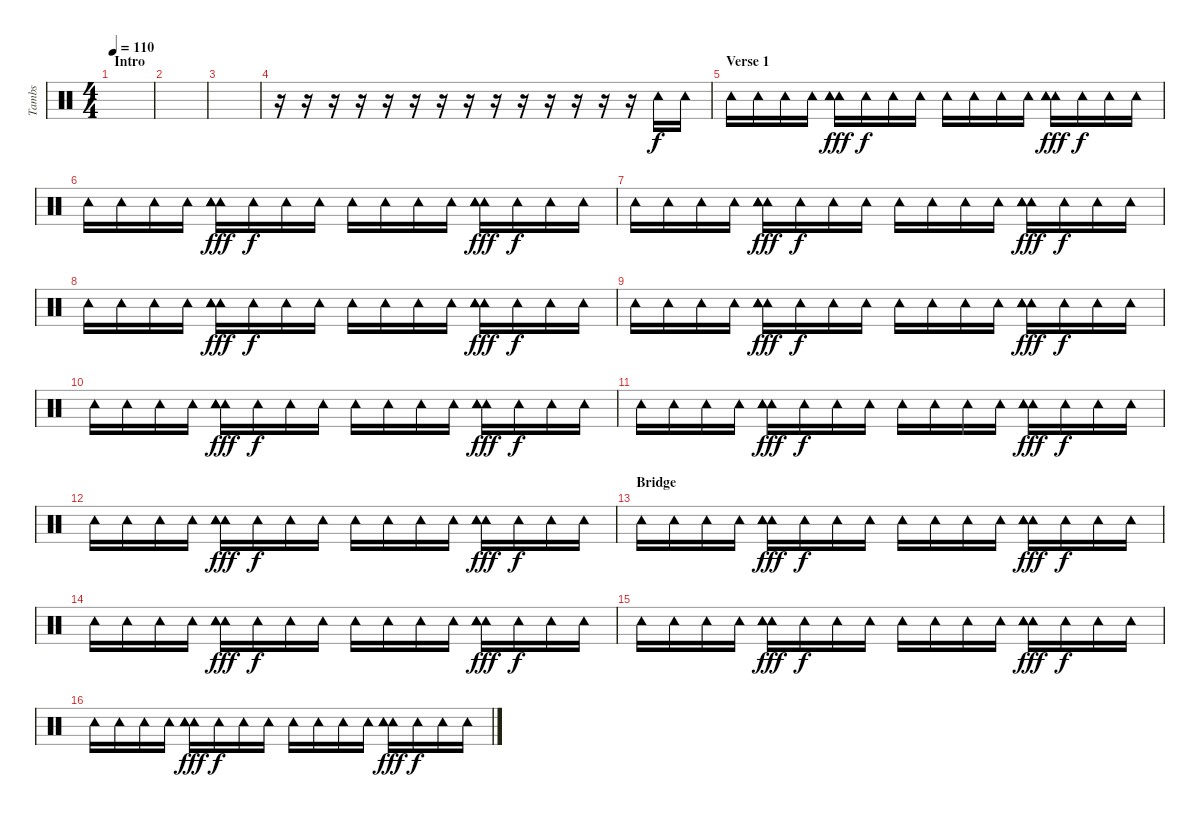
\track ("Tambs" "Tambs") {instrument percussion}
\staff {score}
\articulation defaults
\ts (4 4)
\section ("" "Intro")
\tempo 110
\clef neutral
\ks c
|
|
|
r.16{volume 6} r.16 r.16 r.16 r.16 r.16 r.16 r.16 r.16 r.16 r.16 r.16 r.16 r.16 "Tambourine (hit)".16 "Tambourine (hit)".16 |
\section ("" "Verse 1")
"Tambourine (hit)".16 "Tambourine (hit)".16 "Tambourine (hit)".16 "Tambourine (hit)".16 ("Tambourine (hit)" "Tambourine (hit)" "Tambourine (hit)").16{dy fff balance 6} "Tambourine (hit)".16{dy f balance 11} "Tambourine (hit)".16 "Tambourine (hit)".16 "Tambourine (hit)".16 "Tambourine (hit)".16 "Tambourine (hit)".16 "Tambourine (hit)".16 ("Tambourine (hit)" "Tambourine (hit)" "Tambourine (hit)").16{dy fff balance 6} "Tambourine (hit)".16{dy f balance 11} "Tambourine (hit)".16 "Tambourine (hit)".16 |
"Tambourine (hit)".16 "Tambourine (hit)".16 "Tambourine (hit)".16 "Tambourine (hit)".16 ("Tambourine (hit)" "Tambourine (hit)" "Tambourine (hit)").16{dy fff balance 6} "Tambourine (hit)".16{dy f balance 11} "Tambourine (hit)".16 "Tambourine (hit)".16 "Tambourine (hit)".16 "Tambourine (hit)".16 "Tambourine (hit)".16 "Tambourine (hit)".16 ("Tambourine (hit)" "Tambourine (hit)" "Tambourine (hit)").16{dy fff balance 6} "Tambourine (hit)".16{dy f balance 11} "Tambourine (hit)".16 "Tambourine (hit)".16 |
"Tambourine (hit)".16 "Tambourine (hit)".16 "Tambourine (hit)".16 "Tambourine (hit)".16 ("Tambourine (hit)" "Tambourine (hit)" "Tambourine (hit)").16{dy fff balance 6} "Tambourine (hit)".16{dy f balance 11} "Tambourine (hit)".16 "Tambourine (hit)".16 "Tambourine (hit)".16 "Tambourine (hit)".16 "Tambourine (hit)".16 "Tambourine (hit)".16 ("Tambourine (hit)" "Tambourine (hit)" "Tambourine (hit)").16{dy fff balance 6} "Tambourine (hit)".16{dy f balance 11} "Tambourine (hit)".16 "Tambourine (hit)".16 |
"Tambourine (hit)".16 "Tambourine (hit)".16 "Tambourine (hit)".16 "Tambourine (hit)".16 ("Tambourine (hit)" "Tambourine (hit)" "Tambourine (hit)").16{dy fff balance 6} "Tambourine (hit)".16{dy f balance 11} "Tambourine (hit)".16 "Tambourine (hit)".16 "Tambourine (hit)".16 "Tambourine (hit)".16 "Tambourine (hit)".16 "Tambourine (hit)".16 ("Tambourine (hit)" "Tambourine (hit)" "Tambourine (hit)").16{dy fff balance 6} "Tambourine (hit)".16{dy f balance 11} "Tambourine (hit)".16 "Tambourine (hit)".16 |
"Tambourine (hit)".16 "Tambourine (hit)".16 "Tambourine (hit)".16 "Tambourine (hit)".16 ("Tambourine (hit)" "Tambourine (hit)" "Tambourine (hit)").16{dy fff balance 6} "Tambourine (hit)".16{dy f balance 11} "Tambourine (hit)".16 "Tambourine (hit)".16 "Tambourine (hit)".16 "Tambourine (hit)".16 "Tambourine (hit)".16 "Tambourine (hit)".16 ("Tambourine (hit)" "Tambourine (hit)" "Tambourine (hit)").16{dy fff balance 6} "Tambourine (hit)".16{dy f balance 11} "Tambourine (hit)".16 "Tambourine (hit)".16 |
"Tambourine (hit)".16 "Tambourine (hit)".16 "Tambourine (hit)".16 "Tambourine (hit)".16 ("Tambourine (hit)" "Tambourine (hit)" "Tambourine (hit)").16{dy fff balance 6} "Tambourine (hit)".16{dy f balance 11} "Tambourine (hit)".16 "Tambourine (hit)".16 "Tambourine (hit)".16 "Tambourine (hit)".16 "Tambourine (hit)".16 "Tambourine (hit)".16 ("Tambourine (hit)" "Tambourine (hit)" "Tambourine (hit)").16{dy fff balance 6} "Tambourine (hit)".16{dy f balance 11} "Tambourine (hit)".16 "Tambourine (hit)".16 |
"Tambourine (hit)".16 "Tambourine (hit)".16 "Tambourine (hit)".16 "Tambourine (hit)".16 ("Tambourine (hit)" "Tambourine (hit)" "Tambourine (hit)").16{dy fff balance 6} "Tambourine (hit)".16{dy f balance 11} "Tambourine (hit)".16 "Tambourine (hit)".16 "Tambourine (hit)".16 "Tambourine (hit)".16 "Tambourine (hit)".16 "Tambourine (hit)".16 ("Tambourine (hit)" "Tambourine (hit)" "Tambourine (hit)").16{dy fff balance 6} "Tambourine (hit)".16{dy f balance 11} "Tambourine (hit)".16 "Tambourine (hit)".16 |
"Tambourine (hit)".16 "Tambourine (hit)".16 "Tambourine (hit)".16 "Tambourine (hit)".16 ("Tambourine (hit)" "Tambourine (hit)" "Tambourine (hit)").16{dy fff balance 6} "Tambourine (hit)".16{dy f balance 11} "Tambourine (hit)".16 "Tambourine (hit)".16 "Tambourine (hit)".16 "Tambourine (hit)".16 "Tambourine (hit)".16 "Tambourine (hit)".16 ("Tambourine (hit)" "Tambourine (hit)" "Tambourine (hit)").16{dy fff balance 6} "Tambourine (hit)".16{dy f balance 11} "Tambourine (hit)".16 "Tambourine (hit)".16 |
\section ("" "Bridge")
"Tambourine (hit)".16 "Tambourine (hit)".16 "Tambourine (hit)".16 "Tambourine (hit)".16 ("Tambourine (hit)" "Tambourine (hit)" "Tambourine (hit)").16{dy fff balance 6} "Tambourine (hit)".16{dy f balance 11} "Tambourine (hit)".16 "Tambourine (hit)".16 "Tambourine (hit)".16 "Tambourine (hit)".16 "Tambourine (hit)".16 "Tambourine (hit)".16 ("Tambourine (hit)" "Tambourine (hit)" "Tambourine (hit)").16{dy fff balance 6} "Tambourine (hit)".16{dy f balance 11} "Tambourine (hit)".16 "Tambourine (hit)".16 |
"Tambourine (hit)".16 "Tambourine (hit)".16 "Tambourine (hit)".16 "Tambourine (hit)".16 ("Tambourine (hit)" "Tambourine (hit)" "Tambourine (hit)").16{dy fff balance 6} "Tambourine (hit)".16{dy f balance 11} "Tambourine (hit)".16 "Tambourine (hit)".16 "Tambourine (hit)".16 "Tambourine (hit)".16 "Tambourine (hit)".16 "Tambourine (hit)".16 ("Tambourine (hit)" "Tambourine (hit)" "Tambourine (hit)").16{dy fff balance 6} "Tambourine (hit)".16{dy f balance 11} "Tambourine (hit)".16 "Tambourine (hit)".16 |
"Tambourine (hit)".16 "Tambourine (hit)".16 "Tambourine (hit)".16 "Tambourine (hit)".16 ("Tambourine (hit)" "Tambourine (hit)" "Tambourine (hit)").16{dy fff balance 6} "Tambourine (hit)".16{dy f balance 11} "Tambourine (hit)".16 "Tambourine (hit)".16 "Tambourine (hit)".16 "Tambourine (hit)".16 "Tambourine (hit)".16 "Tambourine (hit)".16 ("Tambourine (hit)" "Tambourine (hit)" "Tambourine (hit)").16{dy fff balance 6} "Tambourine (hit)".16{dy f balance 11} "Tambourine (hit)".16 "Tambourine (hit)".16 |
"Tambourine (hit)".16 "Tambourine (hit)".16 "Tambourine (hit)".16 "Tambourine (hit)".16 ("Tambourine (hit)" "Tambourine (hit)" "Tambourine (hit)").16{dy fff balance 6} "Tambourine (hit)".16{dy f balance 11} "Tambourine (hit)".16 "Tambourine (hit)".16 "Tambourine (hit)".16 "Tambourine (hit)".16 "Tambourine (hit)".16 "Tambourine (hit)".16 ("Tambourine (hit)" "Tambourine (hit)" "Tambourine (hit)").16{dy fff balance 6} "Tambourine (hit)".16{dy f balance 11} "Tambourine (hit)".16 "Tambourine (hit)".16
